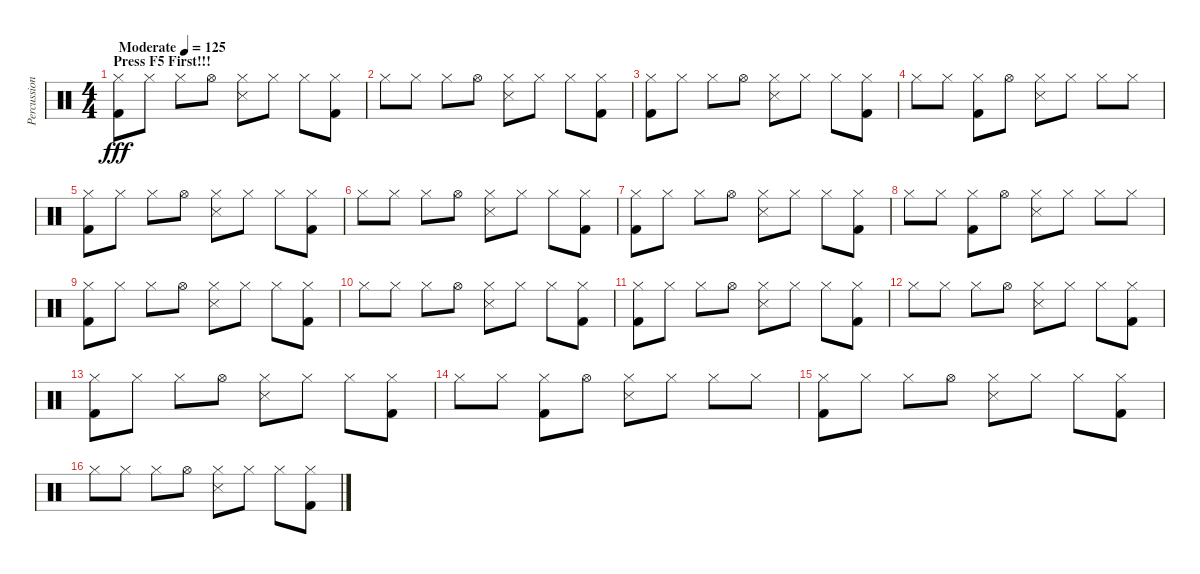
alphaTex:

\track ("Percussion" "Percussion") {instrument percussion}
\staff {score}
\articulation defaults
\ts (4 4)
\section ("" "Press F5 First!!!")
\tempo (125 "Moderate")
\clef neutral
\ks c
("Hi-Hat (closed)" "Kick (hit) 2").8{dy fff} "Hi-Hat (closed)".8 "Hi-Hat (closed)".8 "Hi-Hat (open)".8 ("Hi-Hat (closed)" "Snare (side stick) 3").8 "Hi-Hat (closed)".8 "Hi-Hat (closed)".8 ("Hi-Hat (closed)" "Kick (hit) 2").8 |
"Hi-Hat (closed)".8 "Hi-Hat (closed)".8 "Hi-Hat (closed)".8 "Hi-Hat (open)".8 ("Hi-Hat (closed)" "Snare (side stick) 3").8 "Hi-Hat (closed)".8 "Hi-Hat (closed)".8 ("Hi-Hat (closed)" "Kick (hit) 2").8 |
("Hi-Hat (closed)" "Kick (hit) 2").8 "Hi-Hat (closed)".8 "Hi-Hat (closed)".8 "Hi-Hat (open)".8 ("Hi-Hat (closed)" "Snare (side stick) 3").8 "Hi-Hat (closed)".8 "Hi-Hat (closed)".8 ("Hi-Hat (closed)" "Kick (hit) 2").8 |
"Hi-Hat (closed)".8 "Hi-Hat (closed)".8 ("Hi-Hat (closed)" "Kick (hit) 2").8 "Hi-Hat (open)".8 ("Hi-Hat (closed)" "Snare (side stick) 3").8 "Hi-Hat (closed)".8 "Hi-Hat (closed)".8 "Hi-Hat (closed)".8 |
("Hi-Hat (closed)" "Kick (hit) 2").8 "Hi-Hat (closed)".8 "Hi-Hat (closed)".8 "Hi-Hat (open)".8 ("Hi-Hat (closed)" "Snare (side stick) 3").8 "Hi-Hat (closed)".8 "Hi-Hat (closed)".8 ("Hi-Hat (closed)" "Kick (hit) 2").8 |
"Hi-Hat (closed)".8 "Hi-Hat (closed)".8 "Hi-Hat (closed)".8 "Hi-Hat (open)".8 ("Hi-Hat (closed)" "Snare (side stick) 3").8 "Hi-Hat (closed)".8 "Hi-Hat (closed)".8 ("Hi-Hat (closed)" "Kick (hit) 2").8 |
("Hi-Hat (closed)" "Kick (hit) 2").8 "Hi-Hat (closed)".8 "Hi-Hat (closed)".8 "Hi-Hat (open)".8 ("Hi-Hat (closed)" "Snare (side stick) 3").8 "Hi-Hat (closed)".8 "Hi-Hat (closed)".8 ("Hi-Hat (closed)" "Kick (hit) 2").8 |
"Hi-Hat (closed)".8 "Hi-Hat (closed)".8 ("Hi-Hat (closed)" "Kick (hit) 2").8 "Hi-Hat (open)".8 ("Hi-Hat (closed)" "Snare (side stick) 3").8 "Hi-Hat (closed)".8 "Hi-Hat (closed)".8 "Hi-Hat (closed)".8 |
("Hi-Hat (closed)" "Kick (hit) 2").8 "Hi-Hat (closed)".8 "Hi-Hat (closed)".8 "Hi-Hat (open)".8 ("Hi-Hat (closed)" "Snare (side stick) 3").8 "Hi-Hat (closed)".8 "Hi-Hat (closed)".8 ("Hi-Hat (closed)" "Kick (hit) 2").8 |
"Hi-Hat (closed)".8 "Hi-Hat (closed)".8 "Hi-Hat (closed)".8 "Hi-Hat (open)".8 ("Hi-Hat (closed)" "Snare (side stick) 3").8 "Hi-Hat (closed)".8 "Hi-Hat (closed)".8 ("Hi-Hat (closed)" "Kick (hit) 2").8 |
("Hi-Hat (closed)" "Kick (hit) 2").8 "Hi-Hat (closed)".8 "Hi-Hat (closed)".8 "Hi-Hat (open)".8 ("Hi-Hat (closed)" "Snare (side stick) 3").8 "Hi-Hat (closed)".8 "Hi-Hat (closed)".8 ("Hi-Hat (closed)" "Kick (hit) 2").8 |
"Hi-Hat (closed)".8 "Hi-Hat (closed)".8 "Hi-Hat (closed)".8 "Hi-Hat (open)".8 ("Hi-Hat (closed)" "Snare (side stick) 3").8 "Hi-Hat (closed)".8 "Hi-Hat (closed)".8 ("Hi-Hat (closed)" "Kick (hit) 2").8 |
("Hi-Hat (closed)" "Kick (hit) 2").8 "Hi-Hat (closed)".8 "Hi-Hat (closed)".8 "Hi-Hat (open)".8 ("Hi-Hat (closed)" "Snare (side stick) 3").8 "Hi-Hat (closed)".8 "Hi-Hat (closed)".8 ("Hi-Hat (closed)" "Kick (hit) 2").8 |
"Hi-Hat (closed)".8 "Hi-Hat (closed)".8 ("Hi-Hat (closed)" "Kick (hit) 2").8 "Hi-Hat (open)".8 ("Hi-Hat (closed)" "Snare (side stick) 3").8 "Hi-Hat (closed)".8 "Hi-Hat (closed)".8 "Hi-Hat (closed)".8 |
("Hi-Hat (closed)" "Kick (hit) 2").8 "Hi-Hat (closed)".8 "Hi-Hat (closed)".8 "Hi-Hat (open)".8 ("Hi-Hat (closed)" "Snare (side stick) 3").8 "Hi-Hat (closed)".8 "Hi-Hat (closed)".8 ("Hi-Hat (closed)" "Kick (hit) 2").8 |
"Hi-Hat (closed)".8 "Hi-Hat (closed)".8 "Hi-Hat (closed)".8 "Hi-Hat (open)".8 ("Hi-Hat (closed)" "Snare (side stick) 3").8 "Hi-Hat (closed)".8 "Hi-Hat (closed)".8 ("Hi-Hat (closed)" "Kick (hit) 2").8
